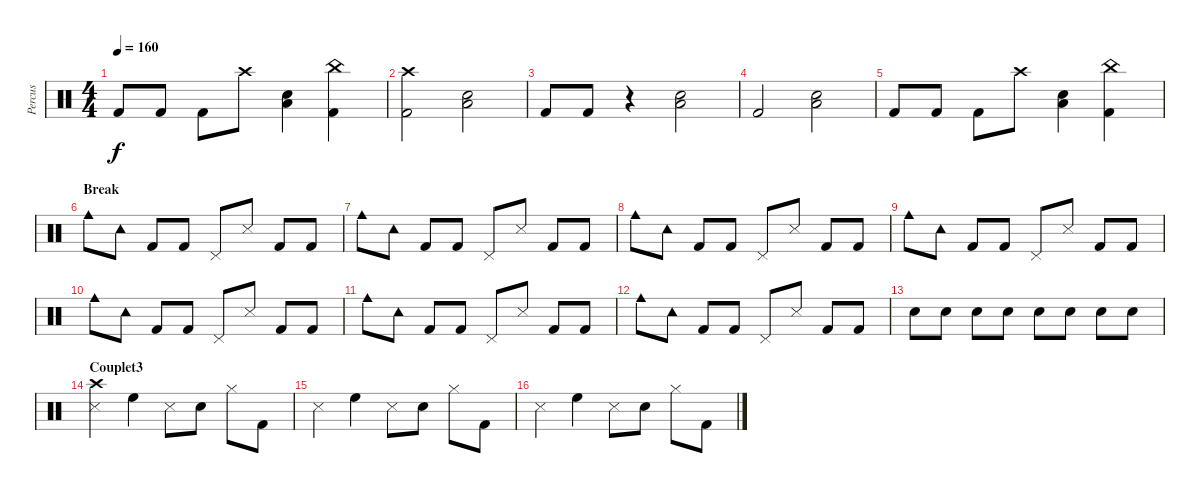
\track ("Percus" "Percus") {instrument percussion}
\staff {score}
\articulation defaults
\ts (4 4)
\tempo 160
\clef neutral
\ks c "Kick (hit) 2".8{dy f} "Kick (hit) 2".8 "Kick (hit) 2".8 "Crash high (hit)".8
("Snare (hit) 2" "Low Floor Tom (hit)").4 ("China (hit)" "Kick (hit) 2").4 |
("Crash high (hit)" "Kick (hit) 2").2 ("Snare (hit) 2" "Low Floor Tom (hit)").2 |
"Kick (hit) 2".8 "Kick (hit) 2".8 r.4 ("Snare (hit) 2" "Low Floor Tom (hit)").2 |
"Kick (hit) 2".2 ("Snare (hit) 2" "Low Floor Tom (hit)").2 |
"Kick (hit) 2".8 "Kick (hit) 2".8 "Kick (hit) 2".8 "Crash high (hit)".8 ("Snare (hit) 2" "Low Floor Tom (hit)").4 ("Kick (hit) 2" "China (hit)").4 |
\section ("" "Break")
"Cowbell medium (hit)".8 "Tambourine (hit)".8 "Kick (hit) 2".8 "Kick (hit) 2".8 "Pedal Hi-Hat (hit)".8 "Snare (side stick) 3".8 "Kick (hit) 2".8 "Kick (hit) 2".8 |
"Cowbell medium (hit)".8 "Tambourine (hit)".8 "Kick (hit) 2".8 "Kick (hit) 2".8 "Pedal Hi-Hat (hit)".8 "Snare (side stick) 3".8 "Kick (hit) 2".8 "Kick (hit) 2".8 |
"Cowbell medium (hit)".8 "Tambourine (hit)".8 "Kick (hit) 2".8 "Kick (hit) 2".8 "Pedal Hi-Hat (hit)".8 "Snare (side stick) 3".8 "Kick (hit) 2".8 "Kick (hit) 2".8 |
"Cowbell medium (hit)".8 "Tambourine (hit)".8 "Kick (hit) 2".8 "Kick (hit) 2".8 "Pedal Hi-Hat (hit)".8 "Snare (side stick) 3".8 "Kick (hit) 2".8 "Kick (hit) 2".8 |
"Cowbell medium (hit)".8 "Tambourine (hit)".8 "Kick (hit) 2".8 "Kick (hit) 2".8 "Pedal Hi-Hat (hit)".8 "Snare (side stick) 3".8 "Kick (hit) 2".8 "Kick (hit) 2".8 |
"Cowbell medium (hit)".8 "Tambourine (hit)".8 "Kick (hit) 2".8 "Kick (hit) 2".8 "Pedal Hi-Hat (hit)".8 "Snare (side stick) 3".8 "Kick (hit) 2".8 "Kick (hit) 2".8 |
"Cowbell medium (hit)".8 "Tambourine (hit)".8 "Kick (hit) 2".8 "Kick (hit) 2".8 "Pedal Hi-Hat (hit)".8 "Snare (side stick) 3".8 "Kick (hit) 2".8 "Kick (hit) 2".8 |
"Snare (hit) 2".8 "Snare (hit) 2".8 "Snare (hit) 2".8 "Snare (hit) 2".8 "Snare (hit) 2".8 "Snare (hit) 2".8 "Snare (hit) 2".8 "Snare (hit) 2".8 |
\section ("" "Couplet3")
("Crash high (hit)" "Snare (side stick) 3").4 "High Floor Tom (hit)".4 "Snare (side stick) 3".8 "Snare (hit) 2".8 "Hi-Hat (closed)".8 "Kick (hit) 2".8 |
"Snare (side stick) 3".4 "High Floor Tom (hit)".4 "Snare (side stick) 3".8 "Snare (hit) 2".8 "Hi-Hat (closed)".8 "Kick (hit) 2".8 |
"Snare (side stick) 3".4 "High Floor Tom (hit)".4 "Snare (side stick) 3".8 "Snare (hit) 2".8 "Hi-Hat (closed)".8 "Kick (hit) 2".8
